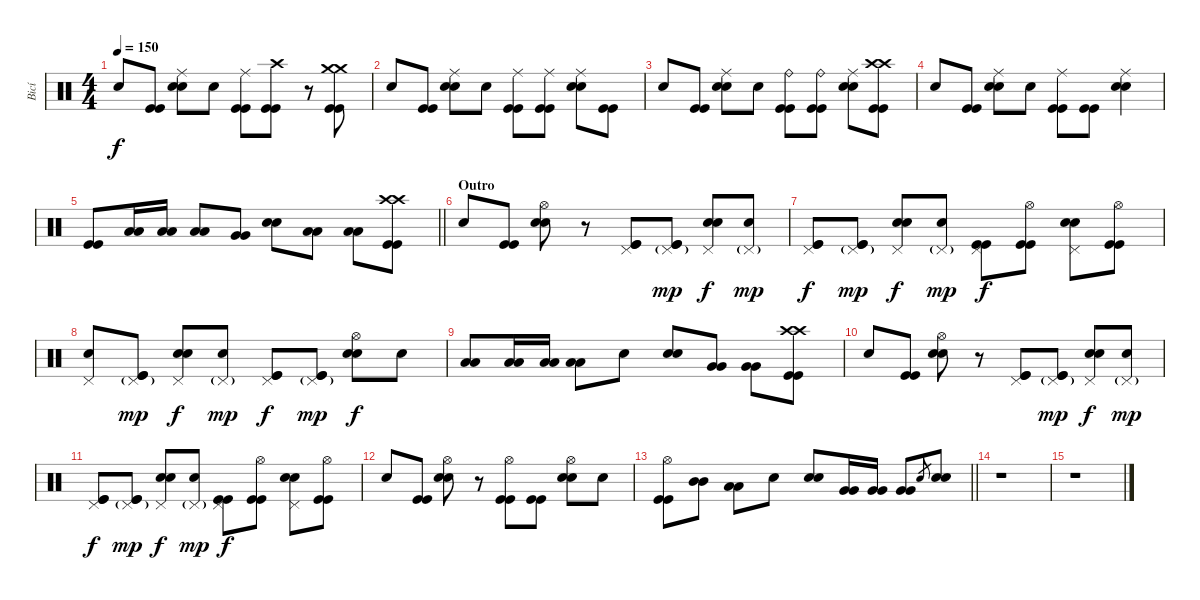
\track ("Bicí" "Bicí") {instrument percussion}
\staff {score}
\articulation defaults
\ts (4 4)
\tempo 150
\clef neutral
\ks c "Snare (hit)".8{dy f}
("Kick (hit)" "Kick (hit)").8 ("Ride (middle)" "Electric Snare (hit)" "Electric Snare (hit)").8 "Snare (hit)".8 ("Ride (middle)" "Kick (hit)" "Kick (hit)").8 ("Crash high (hit)" "Kick (hit)" "Kick (hit)").8 r.8 ("Crash medium (hit)" "Crash medium (hit)" "Kick (hit)" "Kick (hit)").8 |
"Snare (hit)".8 ("Kick (hit)" "Kick (hit)").8 ("Ride (middle)" "Electric Snare (hit)" "Electric Snare (hit)").8 "Snare (hit)".8 ("Ride (middle)" "Kick (hit)" "Kick (hit)").8 ("Ride (middle)" "Kick (hit)" "Kick (hit)").8 ("Ride (middle)" "Electric Snare (hit)" "Electric Snare (hit)").8 ("Kick (hit)" "Kick (hit)").8 |
"Snare (hit)".8 ("Kick (hit)" "Kick (hit)").8 ("Ride (middle)" "Electric Snare (hit)" "Electric Snare (hit)").8 "Snare (hit)".8 ("Ride (bell)" "Kick (hit)" "Kick (hit)").8 ("Ride (bell)" "Kick (hit)" "Kick (hit)").8 ("Ride (middle)" "Electric Snare (hit)" "Electric Snare (hit)").8 ("Crash high (hit)" "Crash high (hit)" "Kick (hit)" "Kick (hit)").8 |
"Snare (hit)".8 ("Kick (hit)" "Kick (hit)").8 ("Ride (middle)" "Electric Snare (hit)" "Electric Snare (hit)").8 "Snare (hit)".8 ("Ride (middle)" "Kick (hit)" "Kick (hit)").8 ("Kick (hit)" "Kick (hit)").8 ("Ride (middle)" "Electric Snare (hit)" "Electric Snare (hit)").4 |
\barLineRight lightlight
("Kick (hit)" "Kick (hit)").8 ("Low Tom (hit)" "Low Tom (hit)").16 ("Low Tom (hit)" "Low Tom (hit)").16 ("Low Tom (hit)" "Low Tom (hit)").8 ("Very Low Tom (hit)" "Very Low Tom (hit)").8 ("Electric Snare (hit)" "Electric Snare (hit)").8 ("Low Floor Tom (hit)" "Low Floor Tom (hit)").8 ("Low Floor Tom (hit)" "Low Floor Tom (hit)").8 ("Crash high (hit)" "Crash high (hit)" "Kick (hit)" "Kick (hit)").8 |
\section ("" "Outro")
"Snare (hit)".8 ("Kick (hit)" "Kick (hit)").8 ("Hi-Hat (open)" "Electric Snare (hit)" "Electric Snare (hit)").8 r.8 ("Pedal Hi-Hat (hit)" "Kick (hit)" "Kick (hit)").8 ("Pedal Hi-Hat (hit)"{g} "Kick (hit)" "Kick (hit)").8{dy mp} ("Pedal Hi-Hat (hit)" "Electric Snare (hit)" "Electric Snare (hit)").8{dy f} ("Pedal Hi-Hat (hit)"{g} "Snare (hit)").8{dy mp} |
("Pedal Hi-Hat (hit)" "Kick (hit)" "Kick (hit)").8{dy f} ("Pedal Hi-Hat (hit)"{g} "Kick (hit)" "Kick (hit)").8{dy mp} ("Pedal Hi-Hat (hit)" "Electric Snare (hit)" "Electric Snare (hit)").8{dy f} ("Pedal Hi-Hat (hit)"{g} "Snare (hit)").8{dy mp} ("Pedal Hi-Hat (hit)" "Kick (hit)" "Kick (hit)").8{dy f} ("Hi-Hat (open)" "Kick (hit)" "Kick (hit)").8 ("Pedal Hi-Hat (hit)" "Electric Snare (hit)" "Electric Snare (hit)").8 ("Hi-Hat (open)" "Kick (hit)" "Kick (hit)").8 |
("Pedal Hi-Hat (hit)" "Snare (hit)").8 ("Pedal Hi-Hat (hit)"{g} "Kick (hit)" "Kick (hit)").8{dy mp} ("Pedal Hi-Hat (hit)" "Electric Snare (hit)" "Electric Snare (hit)").8{dy f} ("Pedal Hi-Hat (hit)"{g} "Snare (hit)").8{dy mp} ("Pedal Hi-Hat (hit)" "Kick (hit)" "Kick (hit)").8{dy f} ("Pedal Hi-Hat (hit)"{g} "Kick (hit)" "Kick (hit)").8{dy mp} ("Hi-Hat (open)" "Electric Snare (hit)" "Electric Snare (hit)").8{dy f} "Snare (hit)".8 |
("Low Tom (hit)" "Low Tom (hit)").8 ("Low Tom (hit)" "Low Tom (hit)").16 ("Low Tom (hit)" "Low Tom (hit)").16 ("Low Tom (hit)" "Low Tom (hit)").8 "Snare (hit)".8 ("Electric Snare (hit)" "Electric Snare (hit)").8 ("Very Low Tom (hit)" "Very Low Tom (hit)").8 ("Very Low Tom (hit)" "Very Low Tom (hit)").8 ("Crash high (hit)" "Crash high (hit)" "Kick (hit)" "Kick (hit)").8 |
"Snare (hit)".8 ("Kick (hit)" "Kick (hit)").8 ("Hi-Hat (open)" "Electric Snare (hit)" "Electric Snare (hit)").8 r.8 ("Pedal Hi-Hat (hit)" "Kick (hit)" "Kick (hit)").8 ("Pedal Hi-Hat (hit)"{g} "Kick (hit)" "Kick (hit)").8{dy mp} ("Pedal Hi-Hat (hit)" "Electric Snare (hit)" "Electric Snare (hit)").8{dy f} ("Pedal Hi-Hat (hit)"{g} "Snare (hit)").8{dy mp} |
("Pedal Hi-Hat (hit)" "Kick (hit)" "Kick (hit)").8{dy f} ("Pedal Hi-Hat (hit)"{g} "Kick (hit)" "Kick (hit)").8{dy mp} ("Pedal Hi-Hat (hit)" "Electric Snare (hit)" "Electric Snare (hit)").8{dy f} ("Pedal Hi-Hat (hit)"{g} "Snare (hit)").8{dy mp} ("Pedal Hi-Hat (hit)" "Kick (hit)" "Kick (hit)").8{dy f} ("Hi-Hat (open)" "Kick (hit)" "Kick (hit)").8 ("Pedal Hi-Hat (hit)" "Electric Snare (hit)" "Electric Snare (hit)").8 ("Hi-Hat (open)" "Kick (hit)" "Kick (hit)").8 |
"Snare (hit)".8 ("Kick (hit)" "Kick (hit)").8 ("Hi-Hat (open)" "Electric Snare (hit)" "Electric Snare (hit)").8 r.8 ("Hi-Hat (open)" "Kick (hit)" "Kick (hit)").8 ("Kick (hit)" "Kick (hit)").8 ("Hi-Hat (open)" "Electric Snare (hit)" "Electric Snare (hit)").8 "Snare (hit)".8 |
\barLineRight lightlight
("Hi-Hat (open)" "Kick (hit)" "Kick (hit)").8 ("Mid Tom (hit)" "Mid Tom (hit)").8 ("Low Tom (hit)" "Low Tom (hit)").8 "Snare (hit)".8 ("Electric Snare (hit)" "Electric Snare (hit)").8 ("Very Low Tom (hit)" "Very Low Tom (hit)").16 ("Very Low Tom (hit)" "Very Low Tom (hit)").16 ("Very Low Tom (hit)" "Very Low Tom (hit)").8 "Electric Snare (hit)".8{gr} ("Electric Snare (hit)" "Electric Snare (hit)").8 |
r.1 |
r.1
